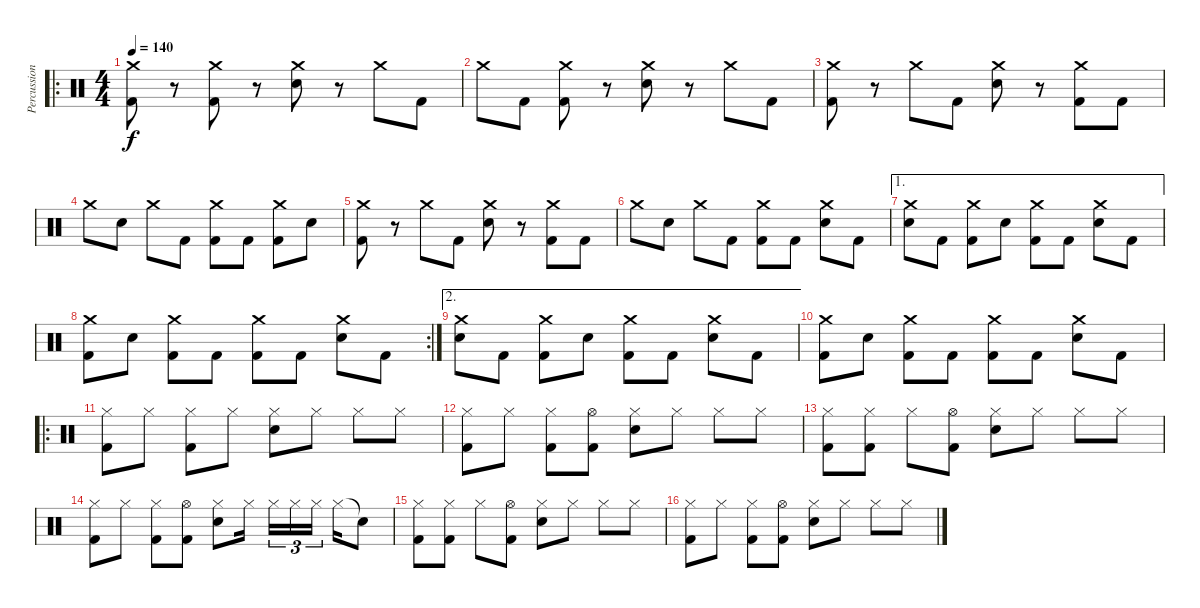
\track ("Percussion" "Percussion") {instrument percussion}
\staff {score}
\articulation defaults
\ro
\ts (4 4)
\tempo 140
\clef neutral
\ks c
("Crash medium (hit)" "Kick (hit) 2").8{dy f} r.8 ("Crash medium (hit)" "Kick (hit) 2").8 r.8 ("Crash medium (hit)" "Snare (hit) 2").8 r.8 "Crash medium (hit)".8 "Kick (hit) 2".8 |
"Crash medium (hit)".8 "Kick (hit) 2".8 ("Crash medium (hit)" "Kick (hit) 2").8 r.8 ("Crash medium (hit)" "Snare (hit) 2").8 r.8 "Crash medium (hit)".8 "Kick (hit) 2".8 |
("Crash medium (hit)" "Kick (hit) 2").8 r.8 "Crash medium (hit)".8 "Kick (hit) 2".8 ("Crash medium (hit)" "Snare (hit) 2").8 r.8 ("Crash medium (hit)" "Kick (hit) 2").8 "Kick (hit) 2".8 |
"Crash medium (hit)".8 "Snare (hit) 2".8 "Crash medium (hit)".8 "Kick (hit) 2".8 ("Crash medium (hit)" "Kick (hit) 2").8 "Kick (hit) 2".8 ("Crash medium (hit)" "Kick (hit) 2").8 "Snare (hit) 2".8 |
("Crash medium (hit)" "Kick (hit) 2").8 r.8 "Crash medium (hit)".8 "Kick (hit) 2".8 ("Crash medium (hit)" "Snare (hit) 2").8 r.8 ("Crash medium (hit)" "Kick (hit) 2").8 "Kick (hit) 2".8 |
"Crash medium (hit)".8 "Snare (hit) 2".8 "Crash medium (hit)".8 "Kick (hit) 2".8 ("Crash medium (hit)" "Kick (hit) 2").8 "Kick (hit) 2".8 ("Crash medium (hit)" "Snare (hit) 2").8 "Kick (hit) 2".8 |
\ae 1
("Crash medium (hit)" "Snare (hit) 2").8 "Kick (hit) 2".8 ("Crash medium (hit)" "Kick (hit) 2").8 "Snare (hit) 2".8 ("Crash medium (hit)" "Kick (hit) 2").8 "Kick (hit) 2".8 ("Crash medium (hit)" "Snare (hit) 2").8 "Kick (hit) 2".8 |
\rc 2
("Crash medium (hit)" "Kick (hit) 2").8 "Snare (hit) 2".8 ("Crash medium (hit)" "Kick (hit) 2").8 "Kick (hit) 2".8 ("Crash medium (hit)" "Kick (hit) 2").8 "Kick (hit) 2".8 ("Crash medium (hit)" "Snare (hit) 2").8 "Kick (hit) 2".8 |
\ae 2
("Crash medium (hit)" "Snare (hit) 2").8 "Kick (hit) 2".8 ("Crash medium (hit)" "Kick (hit) 2").8 "Snare (hit) 2".8 ("Crash medium (hit)" "Kick (hit) 2").8 "Kick (hit) 2".8 ("Crash medium (hit)" "Snare (hit) 2").8 "Kick (hit) 2".8 |
("Crash medium (hit)" "Kick (hit) 2").8 "Snare (hit) 2".8 ("Crash medium (hit)" "Kick (hit) 2").8 "Kick (hit) 2".8 ("Crash medium (hit)" "Kick (hit) 2").8 "Kick (hit) 2".8 ("Crash medium (hit)" "Snare (hit) 2").8 "Kick (hit) 2".8 |
\ro
("Hi-Hat (closed)" "Kick (hit) 2").8 "Hi-Hat (closed)".8 ("Hi-Hat (closed)" "Kick (hit) 2").8 "Hi-Hat (closed)".8 ("Hi-Hat (closed)" "Snare (hit) 2").8 "Hi-Hat (closed)".8 "Hi-Hat (closed)".8 "Hi-Hat (closed)".8 |
("Hi-Hat (closed)" "Kick (hit) 2").8 "Hi-Hat (closed)".8 ("Hi-Hat (closed)" "Kick (hit) 2").8 ("Hi-Hat (open)" "Kick (hit) 2").8 ("Hi-Hat (closed)" "Snare (hit) 2").8 "Hi-Hat (closed)".8 "Hi-Hat (closed)".8 "Hi-Hat (closed)".8 |
("Hi-Hat (closed)" "Kick (hit) 2").8 ("Hi-Hat (closed)" "Kick (hit) 2").8 "Hi-Hat (closed)".8 ("Hi-Hat (open)" "Kick (hit) 2").8 ("Hi-Hat (closed)" "Snare (hit) 2").8 "Hi-Hat (closed)".8 "Hi-Hat (closed)".8 "Hi-Hat (closed)".8 |
("Hi-Hat (closed)" "Kick (hit) 2").8 "Hi-Hat (closed)".8 ("Hi-Hat (closed)" "Kick (hit) 2").8 ("Hi-Hat (open)" "Kick (hit) 2").8 ("Hi-Hat (closed)" "Snare (hit) 2").8 "Hi-Hat (closed)".16{beam splitsecondary} "Hi-Hat (closed)".16{tu (3 2)} "Hi-Hat (closed)".16{tu (3 2)} "Hi-Hat (closed)".16{tu (3 2) beam splitsecondary} "Hi-Hat (closed)".16 "Snare (hit)"{t}.8 |
("Hi-Hat (closed)" "Kick (hit) 2").8 ("Hi-Hat (closed)" "Kick (hit) 2").8 "Hi-Hat (closed)".8 ("Hi-Hat (open)" "Kick (hit) 2").8 ("Hi-Hat (closed)" "Snare (hit) 2").8 "Hi-Hat (closed)".8 "Hi-Hat (closed)".8 "Hi-Hat (closed)".8 |
("Hi-Hat (closed)" "Kick (hit) 2").8 "Hi-Hat (closed)".8 ("Hi-Hat (closed)" "Kick (hit) 2").8 ("Hi-Hat (open)" "Kick (hit) 2").8 ("Hi-Hat (closed)" "Snare (hit) 2").8 "Hi-Hat (closed)".8 "Hi-Hat (closed)".8 "Hi-Hat (closed)".8
